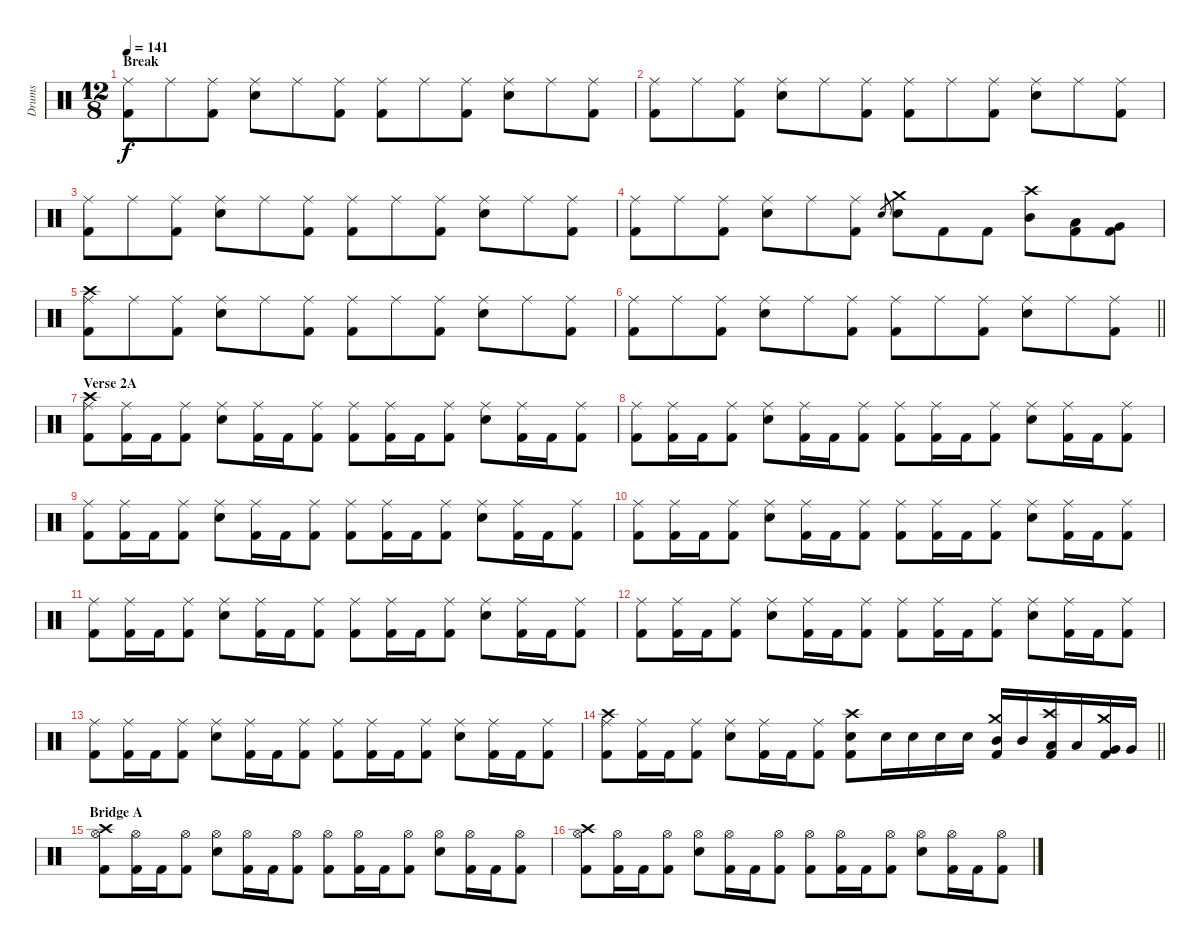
\track ("Drums" "Drums") {instrument percussion}
\staff {score}
\articulation defaults
\ts (12 8)
\section ("" "Break")
\tempo 141
\clef neutral
\ks c
("Ride (middle)" "Kick (hit) 2").8{dy f} "Ride (middle)".8 ("Ride (middle)" "Kick (hit) 2").8 ("Ride (middle)" "Snare (hit) 2").8 "Ride (middle)".8 ("Ride (middle)" "Kick (hit) 2").8 ("Ride (middle)" "Kick (hit) 2").8 "Ride (middle)".8 ("Ride (middle)" "Kick (hit) 2").8 ("Ride (middle)" "Snare (hit) 2").8 "Ride (middle)".8 ("Ride (middle)" "Kick (hit) 2").8 |
("Ride (middle)" "Kick (hit) 2").8 "Ride (middle)".8 ("Ride (middle)" "Kick (hit) 2").8 ("Ride (middle)" "Snare (hit) 2").8 "Ride (middle)".8 ("Ride (middle)" "Kick (hit) 2").8 ("Ride (middle)" "Kick (hit) 2").8 "Ride (middle)".8 ("Ride (middle)" "Kick (hit) 2").8 ("Ride (middle)" "Snare (hit) 2").8 "Ride (middle)".8 ("Ride (middle)" "Kick (hit) 2").8 |
("Ride (middle)" "Kick (hit) 2").8 "Ride (middle)".8 ("Ride (middle)" "Kick (hit) 2").8 ("Ride (middle)" "Snare (hit) 2").8 "Ride (middle)".8 ("Ride (middle)" "Kick (hit) 2").8 ("Ride (middle)" "Kick (hit) 2").8 "Ride (middle)".8 ("Ride (middle)" "Kick (hit) 2").8 ("Ride (middle)" "Snare (hit) 2").8 "Ride (middle)".8 ("Ride (middle)" "Kick (hit) 2").8 |
("Ride (middle)" "Kick (hit) 2").8 "Ride (middle)".8 ("Ride (middle)" "Kick (hit) 2").8 ("Ride (middle)" "Snare (hit) 2").8 "Ride (middle)".8 ("Ride (middle)" "Kick (hit) 2").8 "Snare (hit) 2".8{gr} ("Crash medium (hit)" "Snare (hit) 2").8 "Kick (hit) 2".8 "Kick (hit) 2".8 ("Crash high (hit)" "Mid Tom (hit)").8 ("Low Tom (hit)" "Kick (hit) 2").8 ("Very Low Tom (hit)" "Kick (hit) 2").8 |
("Ride (middle)" "Crash high (hit)" "Kick (hit) 2").8 "Ride (middle)".8 ("Ride (middle)" "Kick (hit) 2").8 ("Ride (middle)" "Snare (hit) 2").8 "Ride (middle)".8 ("Ride (middle)" "Kick (hit) 2").8 ("Ride (middle)" "Kick (hit) 2").8 "Ride (middle)".8 ("Ride (middle)" "Kick (hit) 2").8 ("Ride (middle)" "Snare (hit) 2").8 "Ride (middle)".8 ("Ride (middle)" "Kick (hit) 2").8 |
\barLineRight lightlight
("Ride (middle)" "Kick (hit) 2").8 "Ride (middle)".8 ("Ride (middle)" "Kick (hit) 2").8 ("Ride (middle)" "Snare (hit) 2").8 "Ride (middle)".8 ("Ride (middle)" "Kick (hit) 2").8 ("Ride (middle)" "Kick (hit) 2").8 "Ride (middle)".8 ("Ride (middle)" "Kick (hit) 2").8 ("Ride (middle)" "Snare (hit) 2").8 "Ride (middle)".8 ("Ride (middle)" "Kick (hit) 2").8 |
\section ("" "Verse 2A")
("Crash high (hit)" "Ride (middle)" "Kick (hit) 2").8 ("Ride (middle)" "Kick (hit) 2").16 "Kick (hit) 2".16 ("Ride (middle)" "Kick (hit) 2").8 ("Ride (middle)" "Snare (hit) 2").8 ("Ride (middle)" "Kick (hit) 2").16 "Kick (hit) 2".16 ("Ride (middle)" "Kick (hit) 2").8 ("Ride (middle)" "Kick (hit) 2").8 ("Ride (middle)" "Kick (hit) 2").16 "Kick (hit) 2".16 ("Ride (middle)" "Kick (hit) 2").8 ("Ride (middle)" "Snare (hit) 2").8 ("Ride (middle)" "Kick (hit) 2").16 "Kick (hit) 2".16 ("Ride (middle)" "Kick (hit) 2").8 |
("Ride (middle)" "Kick (hit) 2").8 ("Ride (middle)" "Kick (hit) 2").16 "Kick (hit) 2".16 ("Ride (middle)" "Kick (hit) 2").8 ("Ride (middle)" "Snare (hit) 2").8 ("Ride (middle)" "Kick (hit) 2").16 "Kick (hit) 2".16 ("Ride (middle)" "Kick (hit) 2").8 ("Ride (middle)" "Kick (hit) 2").8 ("Ride (middle)" "Kick (hit) 2").16 "Kick (hit) 2".16 ("Ride (middle)" "Kick (hit) 2").8 ("Ride (middle)" "Snare (hit) 2").8 ("Ride (middle)" "Kick (hit) 2").16 "Kick (hit) 2".16 ("Ride (middle)" "Kick (hit) 2").8 |
("Ride (middle)" "Kick (hit) 2").8 ("Ride (middle)" "Kick (hit) 2").16 "Kick (hit) 2".16 ("Ride (middle)" "Kick (hit) 2").8 ("Ride (middle)" "Snare (hit) 2").8 ("Ride (middle)" "Kick (hit) 2").16 "Kick (hit) 2".16 ("Ride (middle)" "Kick (hit) 2").8 ("Ride (middle)" "Kick (hit) 2").8 ("Ride (middle)" "Kick (hit) 2").16 "Kick (hit) 2".16 ("Ride (middle)" "Kick (hit) 2").8 ("Ride (middle)" "Snare (hit) 2").8 ("Ride (middle)" "Kick (hit) 2").16 "Kick (hit) 2".16 ("Ride (middle)" "Kick (hit) 2").8 |
("Ride (middle)" "Kick (hit) 2").8 ("Ride (middle)" "Kick (hit) 2").16 "Kick (hit) 2".16 ("Ride (middle)" "Kick (hit) 2").8 ("Ride (middle)" "Snare (hit) 2").8 ("Ride (middle)" "Kick (hit) 2").16 "Kick (hit) 2".16 ("Ride (middle)" "Kick (hit) 2").8 ("Ride (middle)" "Kick (hit) 2").8 ("Ride (middle)" "Kick (hit) 2").16 "Kick (hit) 2".16 ("Ride (middle)" "Kick (hit) 2").8 ("Ride (middle)" "Snare (hit) 2").8 ("Ride (middle)" "Kick (hit) 2").16 "Kick (hit) 2".16 ("Ride (middle)" "Kick (hit) 2").8 |
("Ride (middle)" "Kick (hit) 2").8 ("Ride (middle)" "Kick (hit) 2").16 "Kick (hit) 2".16 ("Ride (middle)" "Kick (hit) 2").8 ("Ride (middle)" "Snare (hit) 2").8 ("Ride (middle)" "Kick (hit) 2").16 "Kick (hit) 2".16 ("Ride (middle)" "Kick (hit) 2").8 ("Ride (middle)" "Kick (hit) 2").8 ("Ride (middle)" "Kick (hit) 2").16 "Kick (hit) 2".16 ("Ride (middle)" "Kick (hit) 2").8 ("Ride (middle)" "Snare (hit) 2").8 ("Ride (middle)" "Kick (hit) 2").16 "Kick (hit) 2".16 ("Ride (middle)" "Kick (hit) 2").8 |
("Ride (middle)" "Kick (hit) 2").8 ("Ride (middle)" "Kick (hit) 2").16 "Kick (hit) 2".16 ("Ride (middle)" "Kick (hit) 2").8 ("Ride (middle)" "Snare (hit) 2").8 ("Ride (middle)" "Kick (hit) 2").16 "Kick (hit) 2".16 ("Ride (middle)" "Kick (hit) 2").8 ("Ride (middle)" "Kick (hit) 2").8 ("Ride (middle)" "Kick (hit) 2").16 "Kick (hit) 2".16 ("Ride (middle)" "Kick (hit) 2").8 ("Ride (middle)" "Snare (hit) 2").8 ("Ride (middle)" "Kick (hit) 2").16 "Kick (hit) 2".16 ("Ride (middle)" "Kick (hit) 2").8 |
("Ride (middle)" "Kick (hit) 2").8 ("Ride (middle)" "Kick (hit) 2").16 "Kick (hit) 2".16 ("Ride (middle)" "Kick (hit) 2").8 ("Ride (middle)" "Snare (hit) 2").8 ("Ride (middle)" "Kick (hit) 2").16 "Kick (hit) 2".16 ("Ride (middle)" "Kick (hit) 2").8 ("Ride (middle)" "Kick (hit) 2").8 ("Ride (middle)" "Kick (hit) 2").16 "Kick (hit) 2".16 ("Ride (middle)" "Kick (hit) 2").8 ("Ride (middle)" "Snare (hit) 2").8 ("Ride (middle)" "Kick (hit) 2").16 "Kick (hit) 2".16 ("Ride (middle)" "Kick (hit) 2").8 |
\barLineRight lightlight
("Crash high (hit)" "Ride (middle)" "Kick (hit) 2").8 ("Ride (middle)" "Kick (hit) 2").16 "Kick (hit) 2".16 ("Ride (middle)" "Kick (hit) 2").8 ("Ride (middle)" "Snare (hit) 2").8 ("Ride (middle)" "Kick (hit) 2").16 "Kick (hit) 2".16 ("Ride (middle)" "Kick (hit) 2").8 ("Crash high (hit)" "Snare (hit) 2" "Kick (hit) 2").8 "Snare (hit) 2".16 "Snare (hit) 2".16 "Snare (hit) 2".16 "Snare (hit) 2".16 ("Crash medium (hit)" "Mid Tom (hit)" "Kick (hit) 2").16 "Mid Tom (hit)".16 ("Crash high (hit)" "Low Tom (hit)" "Kick (hit) 2").16 "Low Tom (hit)".16 ("Crash medium (hit)" "Very Low Tom (hit)" "Kick (hit) 2").16 "Very Low Tom (hit)".16 |
\section ("" "Bridge A")
("Crash high (hit)" "Hi-Hat (open)" "Kick (hit) 2").8 ("Hi-Hat (open)" "Kick (hit) 2").16 "Kick (hit) 2".16 ("Hi-Hat (open)" "Kick (hit) 2").8 ("Hi-Hat (open)" "Snare (hit) 2").8 ("Hi-Hat (open)" "Kick (hit) 2").16 "Kick (hit) 2".16 ("Hi-Hat (open)" "Kick (hit) 2").8 ("Hi-Hat (open)" "Kick (hit) 2").8 ("Hi-Hat (open)" "Kick (hit) 2").16 "Kick (hit) 2".16 ("Hi-Hat (open)" "Kick (hit) 2").8 ("Hi-Hat (open)" "Snare (hit) 2").8 ("Hi-Hat (open)" "Kick (hit) 2").16 "Kick (hit) 2".16 ("Hi-Hat (open)" "Kick (hit) 2").8 |
("Crash high (hit)" "Hi-Hat (open)" "Kick (hit) 2").8 ("Hi-Hat (open)" "Kick (hit) 2").16 "Kick (hit) 2".16 ("Hi-Hat (open)" "Kick (hit) 2").8 ("Hi-Hat (open)" "Snare (hit) 2").8 ("Hi-Hat (open)" "Kick (hit) 2").16 "Kick (hit) 2".16 ("Hi-Hat (open)" "Kick (hit) 2").8 ("Hi-Hat (open)" "Kick (hit) 2").8 ("Hi-Hat (open)" "Kick (hit) 2").16 "Kick (hit) 2".16 ("Hi-Hat (open)" "Kick (hit) 2").8 ("Hi-Hat (open)" "Snare (hit) 2").8 ("Hi-Hat (open)" "Kick (hit) 2").16 "Kick (hit) 2".16 ("Hi-Hat (open)" "Kick (hit) 2").8
